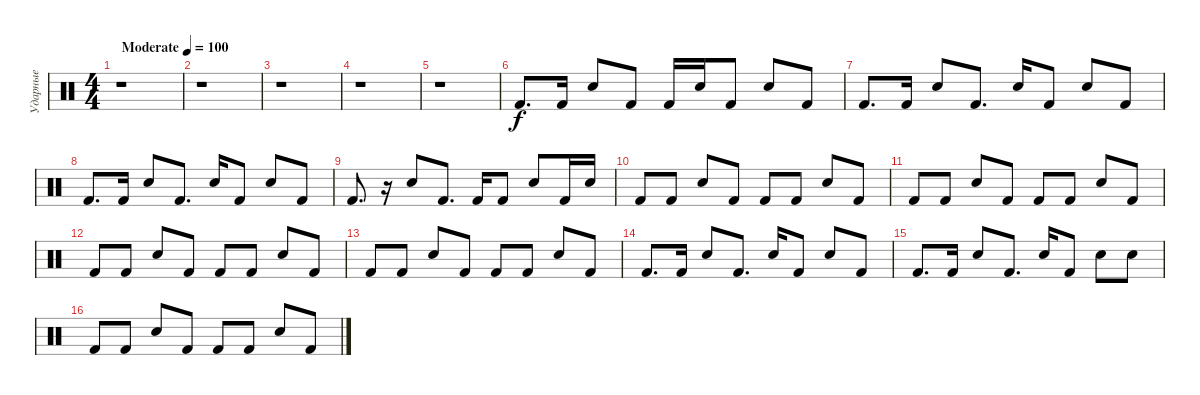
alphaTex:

\track ("Ударные" "Ударные") {instrument percussion}
\staff {score}
\articulation defaults
\ts (4 4)
\tempo (100 "Moderate")
\clef neutral
\ks c
r.1{dy f} |
r.1 |
r.1 |
r.1 |
r.1 |
"Kick (hit) 2".8{d} "Kick (hit) 2".16 "Snare (hit) 2".8 "Kick (hit) 2".8 "Kick (hit) 2".16 "Snare (hit) 2".16 "Kick (hit) 2".8 "Snare (hit) 2".8 "Kick (hit) 2".8 |
"Kick (hit) 2".8{d} "Kick (hit) 2".16 "Snare (hit) 2".8 "Kick (hit) 2".8{d} "Snare (hit) 2".16 "Kick (hit) 2".8 "Snare (hit) 2".8 "Kick (hit) 2".8 |
"Kick (hit) 2".8{d} "Kick (hit) 2".16 "Snare (hit) 2".8 "Kick (hit) 2".8{d} "Snare (hit) 2".16 "Kick (hit) 2".8 "Snare (hit) 2".8 "Kick (hit) 2".8 |
"Kick (hit) 2".8{d} r.16 "Snare (hit) 2".8 "Kick (hit) 2".8{d} "Kick (hit) 2".16 "Kick (hit) 2".8 "Snare (hit) 2".8 "Kick (hit) 2".16 "Snare (hit) 2".16 |
"Kick (hit) 2".8 "Kick (hit) 2".8 "Snare (hit) 2".8 "Kick (hit) 2".8 "Kick (hit) 2".8 "Kick (hit) 2".8 "Snare (hit) 2".8 "Kick (hit) 2".8 |
"Kick (hit) 2".8 "Kick (hit) 2".8 "Snare (hit) 2".8 "Kick (hit) 2".8 "Kick (hit) 2".8 "Kick (hit) 2".8 "Snare (hit) 2".8 "Kick (hit) 2".8 |
"Kick (hit) 2".8 "Kick (hit) 2".8 "Snare (hit) 2".8 "Kick (hit) 2".8 "Kick (hit) 2".8 "Kick (hit) 2".8 "Snare (hit) 2".8 "Kick (hit) 2".8 |
"Kick (hit) 2".8 "Kick (hit) 2".8 "Snare (hit) 2".8 "Kick (hit) 2".8 "Kick (hit) 2".8 "Kick (hit) 2".8 "Snare (hit) 2".8 "Kick (hit) 2".8 |
"Kick (hit) 2".8{d} "Kick (hit) 2".16 "Snare (hit) 2".8 "Kick (hit) 2".8{d} "Snare (hit) 2".16 "Kick (hit) 2".8 "Snare (hit) 2".8 "Kick (hit) 2".8 |
"Kick (hit) 2".8{d} "Kick (hit) 2".16 "Snare (hit) 2".8 "Kick (hit) 2".8{d} "Snare (hit) 2".16 "Kick (hit) 2".8 "Snare (hit) 2".8 "Snare (hit) 2".8 |
"Kick (hit) 2".8 "Kick (hit) 2".8 "Snare (hit) 2".8 "Kick (hit) 2".8 "Kick (hit) 2".8 "Kick (hit) 2".8 "Snare (hit) 2".8 "Kick (hit) 2".8
